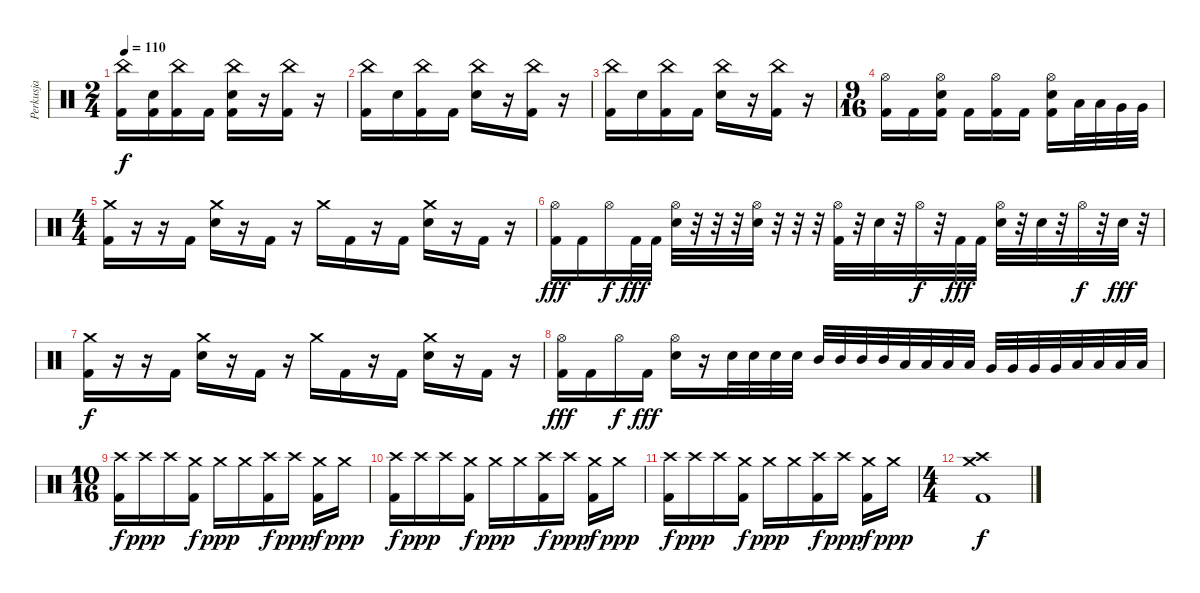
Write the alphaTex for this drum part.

\track ("Perkusja" "Perkusja") {instrument percussion}
\staff {score}
\articulation defaults
\ts (2 4)
\tempo 110
\clef neutral
\ks c
("China (hit)" "Kick (hit) 2").16{dy f} ("Electric Snare (hit)" "Kick (hit) 2").16 ("China (hit)" "Kick (hit) 2").16 "Kick (hit) 2".16 ("China (hit)" "Electric Snare (hit)" "Kick (hit) 2").16 r.16 ("China (hit)" "Kick (hit) 2").16 r.16 |
("China (hit)" "Kick (hit) 2").16 "Electric Snare (hit)".16 ("China (hit)" "Kick (hit) 2").16 "Kick (hit) 2".16 ("China (hit)" "Electric Snare (hit)").16 r.16 ("China (hit)" "Kick (hit) 2").16 r.16 |
("China (hit)" "Kick (hit) 2").16 "Electric Snare (hit)".16 ("China (hit)" "Kick (hit) 2").16 "Kick (hit) 2".16 ("China (hit)" "Electric Snare (hit)").16 r.16 ("China (hit)" "Kick (hit) 2").16 r.16 |
\ts (9 16)
("Hi-Hat (open)" "Kick (hit) 2").16 "Kick (hit) 2".16 ("Hi-Hat (open)" "Electric Snare (hit)" "Kick (hit) 2").16 "Kick (hit) 2".16 ("Hi-Hat (open)" "Kick (hit) 2").16 "Kick (hit) 2".16 ("Hi-Hat (open)" "Electric Snare (hit)" "Kick (hit) 2").16 "Low Tom (hit)".32 "Low Tom (hit)".32 "Very Low Tom (hit)".32 "Very Low Tom (hit)".32 |
\ts (4 4)
("Crash medium (hit)" "Kick (hit) 2").16 r.16 r.16 "Kick (hit) 2".16 ("Crash medium (hit)" "Electric Snare (hit)").16 r.16 "Kick (hit) 2".16 r.16 "Crash medium (hit)".16 "Kick (hit) 2".16 r.16 "Kick (hit) 2".16 ("Crash medium (hit)" "Electric Snare (hit)").16 r.16 "Kick (hit) 2".16 r.16 |
("Hi-Hat (open)" "Kick (hit) 2").16{dy fff} "Kick (hit) 2".16 "Hi-Hat (open)".16{dy f} "Kick (hit) 2".32{dy fff} "Kick (hit) 2".32 ("Hi-Hat (open)" "Electric Snare (hit)").32 r.32 r.32 r.32 ("Hi-Hat (open)" "Electric Snare (hit)").32 r.32 r.32 r.32 ("Hi-Hat (open)" "Kick (hit) 2").32 r.32 "Electric Snare (hit)".32 r.32 "Hi-Hat (open)".32{dy f} r.32 "Kick (hit) 2".32{dy fff} "Kick (hit) 2".32 ("Hi-Hat (open)" "Electric Snare (hit)").32 r.32 "Electric Snare (hit)".32 r.32 "Hi-Hat (open)".32{dy f} r.32 "Electric Snare (hit)".32{dy fff} r.32 |
("Crash medium (hit)" "Kick (hit) 2").16{dy f} r.16 r.16 "Kick (hit) 2".16 ("Crash medium (hit)" "Electric Snare (hit)").16 r.16 "Kick (hit) 2".16 r.16 "Crash medium (hit)".16 "Kick (hit) 2".16 r.16 "Kick (hit) 2".16 ("Crash medium (hit)" "Electric Snare (hit)").16 r.16 "Kick (hit) 2".16 r.16 |
("Hi-Hat (open)" "Kick (hit) 2").16{dy fff} "Kick (hit) 2".16 "Hi-Hat (open)".16{dy f} "Kick (hit) 2".16{dy fff} ("Hi-Hat (open)" "Electric Snare (hit)").16 r.16 "Electric Snare (hit)".32 "Electric Snare (hit)".32 "Electric Snare (hit)".32 "Electric Snare (hit)".32 "Mid Tom (hit)".32 "Mid Tom (hit)".32 "Mid Tom (hit)".32 "Mid Tom (hit)".32 "Low Tom (hit)".32 "Low Tom (hit)".32 "Low Tom (hit)".32 "Low Tom (hit)".32 "Very Low Tom (hit)".32 "Very Low Tom (hit)".32 "Very Low Tom (hit)".32 "Very Low Tom (hit)".32 "Low Floor Tom (hit)".32 "Low Floor Tom (hit)".32 "Low Floor Tom (hit)".32 "Low Floor Tom (hit)".32 |
\ts (10 16)
("Crash high (hit)" "Kick (hit) 2").16{dy f} "Crash high (hit)".16{dy ppp} "Crash high (hit)".16 ("Crash medium (hit)" "Kick (hit) 2").16{dy f} "Crash medium (hit)".16{dy ppp} "Crash medium (hit)".16 ("Crash high (hit)" "Kick (hit) 2").16{dy f} "Crash high (hit)".16{dy ppp} ("Crash medium (hit)" "Kick (hit) 2").16{dy f} "Crash medium (hit)".16{dy ppp} |
("Crash high (hit)" "Kick (hit) 2").16{dy f} "Crash high (hit)".16{dy ppp} "Crash high (hit)".16 ("Crash medium (hit)" "Kick (hit) 2").16{dy f} "Crash medium (hit)".16{dy ppp} "Crash medium (hit)".16 ("Crash high (hit)" "Kick (hit) 2").16{dy f} "Crash high (hit)".16{dy ppp} ("Crash medium (hit)" "Kick (hit) 2").16{dy f} "Crash medium (hit)".16{dy ppp} |
("Crash high (hit)" "Kick (hit) 2").16{dy f} "Crash high (hit)".16{dy ppp} "Crash high (hit)".16 ("Crash medium (hit)" "Kick (hit) 2").16{dy f} "Crash medium (hit)".16{dy ppp} "Crash medium (hit)".16 ("Crash high (hit)" "Kick (hit) 2").16{dy f} "Crash high (hit)".16{dy ppp} ("Crash medium (hit)" "Kick (hit) 2").16{dy f} "Crash medium (hit)".16{dy ppp} |
\ts (4 4)
("Crash medium (hit)" "Crash high (hit)" "Kick (hit) 2").1{dy f}
